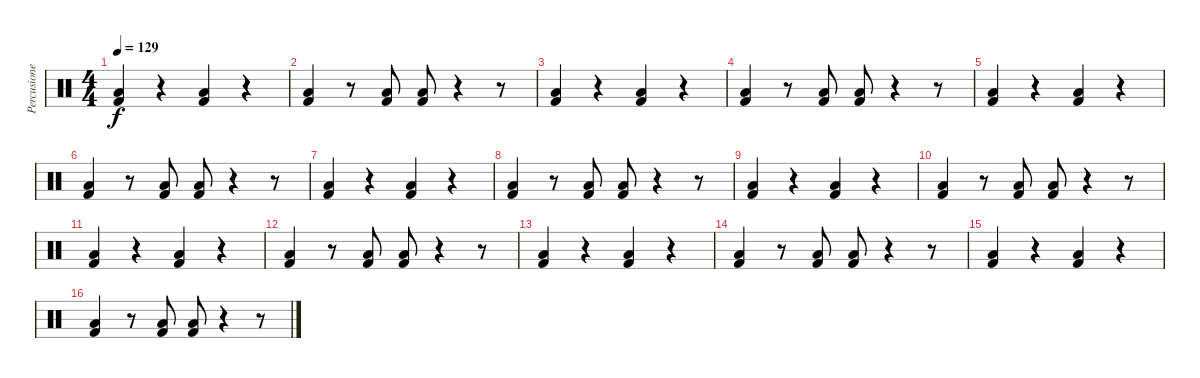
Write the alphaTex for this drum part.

\track ("Percusiones" "Percusione") {instrument percussion}
\staff {score}
\articulation defaults
\ts (4 4)
\tempo 129
\clef neutral
\ks c
("Kick (hit) 2" "Low Floor Tom (hit)").4{dy f} r.4 ("Kick (hit) 2" "Low Floor Tom (hit)").4 r.4 |
("Kick (hit) 2" "Low Floor Tom (hit)").4 r.8 ("Kick (hit) 2" "Low Floor Tom (hit)").8 ("Kick (hit) 2" "Low Floor Tom (hit)").8 r.4 r.8 |
("Kick (hit) 2" "Low Floor Tom (hit)").4 r.4 ("Kick (hit) 2" "Low Floor Tom (hit)").4 r.4 |
("Kick (hit) 2" "Low Floor Tom (hit)").4 r.8 ("Kick (hit) 2" "Low Floor Tom (hit)").8 ("Kick (hit) 2" "Low Floor Tom (hit)").8 r.4 r.8 |
("Kick (hit) 2" "Low Floor Tom (hit)").4 r.4 ("Kick (hit) 2" "Low Floor Tom (hit)").4 r.4 |
("Kick (hit) 2" "Low Floor Tom (hit)").4 r.8 ("Kick (hit) 2" "Low Floor Tom (hit)").8 ("Kick (hit) 2" "Low Floor Tom (hit)").8 r.4 r.8 |
("Kick (hit) 2" "Low Floor Tom (hit)").4 r.4 ("Kick (hit) 2" "Low Floor Tom (hit)").4 r.4 |
("Kick (hit) 2" "Low Floor Tom (hit)").4 r.8 ("Kick (hit) 2" "Low Floor Tom (hit)").8 ("Kick (hit) 2" "Low Floor Tom (hit)").8 r.4 r.8 |
("Kick (hit) 2" "Low Floor Tom (hit)").4 r.4 ("Kick (hit) 2" "Low Floor Tom (hit)").4 r.4 |
("Kick (hit) 2" "Low Floor Tom (hit)").4 r.8 ("Kick (hit) 2" "Low Floor Tom (hit)").8 ("Kick (hit) 2" "Low Floor Tom (hit)").8 r.4 r.8 |
("Kick (hit) 2" "Low Floor Tom (hit)").4 r.4 ("Kick (hit) 2" "Low Floor Tom (hit)").4 r.4 |
("Kick (hit) 2" "Low Floor Tom (hit)").4 r.8 ("Kick (hit) 2" "Low Floor Tom (hit)").8 ("Kick (hit) 2" "Low Floor Tom (hit)").8 r.4 r.8 |
("Kick (hit) 2" "Low Floor Tom (hit)").4 r.4 ("Kick (hit) 2" "Low Floor Tom (hit)").4 r.4 |
("Kick (hit) 2" "Low Floor Tom (hit)").4 r.8 ("Kick (hit) 2" "Low Floor Tom (hit)").8 ("Kick (hit) 2" "Low Floor Tom (hit)").8 r.4 r.8 |
("Kick (hit) 2" "Low Floor Tom (hit)").4 r.4 ("Kick (hit) 2" "Low Floor Tom (hit)").4 r.4 |
("Kick (hit) 2" "Low Floor Tom (hit)").4 r.8 ("Kick (hit) 2" "Low Floor Tom (hit)").8 ("Kick (hit) 2" "Low Floor Tom (hit)").8 r.4 r.8
